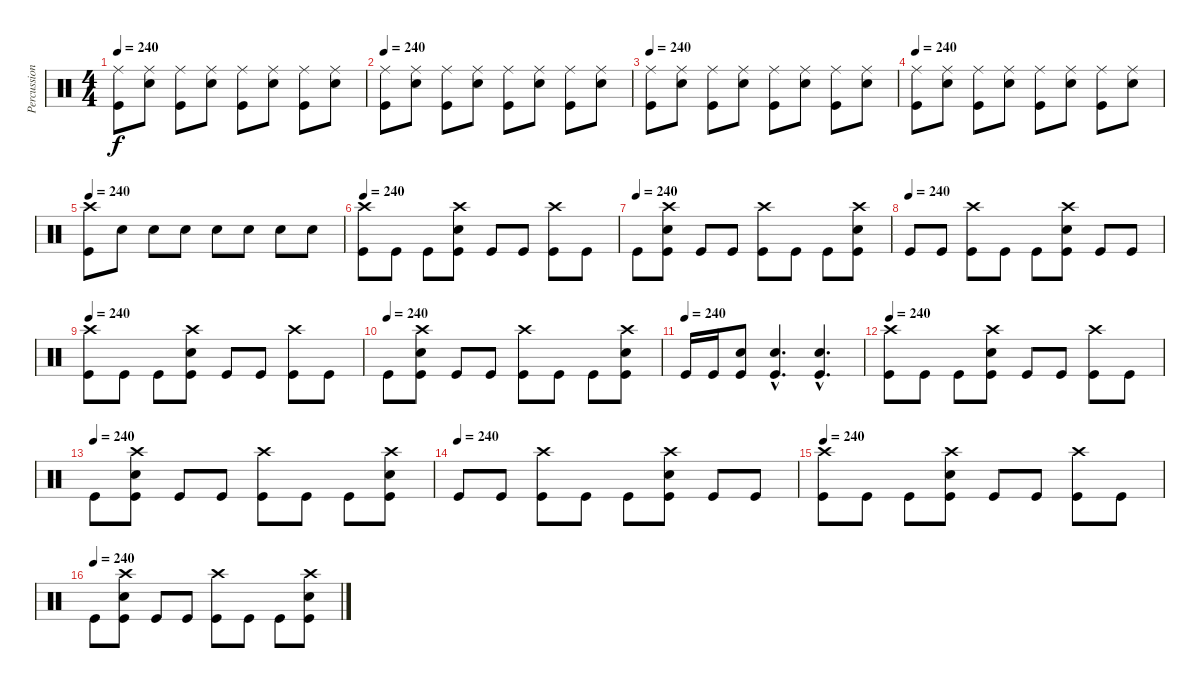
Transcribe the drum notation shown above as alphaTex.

\track ("Percussion" "Percussion") {instrument percussion}
\staff {score}
\articulation defaults
\ts (4 4)
\tempo 240
\clef neutral
\ks c
("Ride (middle)" "Kick (hit)").8{dy f} ("Electric Snare (hit)" "Ride (middle)").8 ("Ride (middle)" "Kick (hit)").8 ("Electric Snare (hit)" "Ride (middle)").8 ("Ride (middle)" "Kick (hit)").8 ("Electric Snare (hit)" "Ride (middle)").8 ("Ride (middle)" "Kick (hit)").8 ("Electric Snare (hit)" "Ride (middle)").8 |
\tempo 240
("Ride (middle)" "Kick (hit)").8 ("Electric Snare (hit)" "Ride (middle)").8 ("Ride (middle)" "Kick (hit)").8 ("Electric Snare (hit)" "Ride (middle)").8 ("Ride (middle)" "Kick (hit)").8 ("Electric Snare (hit)" "Ride (middle)").8 ("Ride (middle)" "Kick (hit)").8 ("Electric Snare (hit)" "Ride (middle)").8 |
\tempo 240
("Ride (middle)" "Kick (hit)").8 ("Electric Snare (hit)" "Ride (middle)").8 ("Ride (middle)" "Kick (hit)").8 ("Electric Snare (hit)" "Ride (middle)").8 ("Ride (middle)" "Kick (hit)").8 ("Electric Snare (hit)" "Ride (middle)").8 ("Ride (middle)" "Kick (hit)").8 ("Electric Snare (hit)" "Ride (middle)").8 |
\tempo 240
("Ride (middle)" "Kick (hit)").8 ("Electric Snare (hit)" "Ride (middle)").8 ("Ride (middle)" "Kick (hit)").8 ("Electric Snare (hit)" "Ride (middle)").8 ("Ride (middle)" "Kick (hit)").8 ("Electric Snare (hit)" "Ride (middle)").8 ("Ride (middle)" "Kick (hit)").8 ("Electric Snare (hit)" "Ride (middle)").8 |
\tempo 240
("Crash high (hit)" "Kick (hit)").8 "Electric Snare (hit)".8 "Electric Snare (hit)".8 "Electric Snare (hit)".8 "Electric Snare (hit)".8 "Electric Snare (hit)".8 "Electric Snare (hit)".8 "Electric Snare (hit)".8 |
\tempo 240
("Crash high (hit)" "Kick (hit)").8 "Kick (hit)".8 "Kick (hit)".8 ("Electric Snare (hit)" "Crash high (hit)" "Kick (hit)").8 "Kick (hit)".8 "Kick (hit)".8 ("Crash high (hit)" "Kick (hit)").8 "Kick (hit)".8 |
\tempo (240)
"Kick (hit)".8 ("Electric Snare (hit)" "Crash high (hit)" "Kick (hit)").8 "Kick (hit)".8 "Kick (hit)".8 ("Crash high (hit)" "Kick (hit)").8 "Kick (hit)".8 "Kick (hit)".8 ("Electric Snare (hit)" "Crash high (hit)" "Kick (hit)").8 |
\tempo (240)
"Kick (hit)".8 "Kick (hit)".8 ("Crash high (hit)" "Kick (hit)").8 "Kick (hit)".8 "Kick (hit)".8 ("Electric Snare (hit)" "Crash high (hit)" "Kick (hit)").8 "Kick (hit)".8 "Kick (hit)".8 |
\tempo 240
("Crash high (hit)" "Kick (hit)").8 "Kick (hit)".8 "Kick (hit)".8 ("Electric Snare (hit)" "Crash high (hit)" "Kick (hit)").8 "Kick (hit)".8 "Kick (hit)".8 ("Crash high (hit)" "Kick (hit)").8 "Kick (hit)".8 |
\tempo (240)
"Kick (hit)".8 ("Electric Snare (hit)" "Crash high (hit)" "Kick (hit)").8 "Kick (hit)".8 "Kick (hit)".8 ("Crash high (hit)" "Kick (hit)").8 "Kick (hit)".8 "Kick (hit)".8 ("Electric Snare (hit)" "Crash high (hit)" "Kick (hit)").8 |
\tempo (240)
"Kick (hit)".16 "Kick (hit)".16 ("Electric Snare (hit)" "Kick (hit)").8 ("Electric Snare (hit)"{hac} "Kick (hit)"{hac}).4{d} ("Electric Snare (hit)"{hac} "Kick (hit)"{hac}).4{d} |
\tempo 240
("Crash high (hit)" "Kick (hit)").8 "Kick (hit)".8 "Kick (hit)".8 ("Electric Snare (hit)" "Crash high (hit)" "Kick (hit)").8 "Kick (hit)".8 "Kick (hit)".8 ("Crash high (hit)" "Kick (hit)").8 "Kick (hit)".8 |
\tempo (240)
"Kick (hit)".8 ("Electric Snare (hit)" "Crash high (hit)" "Kick (hit)").8 "Kick (hit)".8 "Kick (hit)".8 ("Crash high (hit)" "Kick (hit)").8 "Kick (hit)".8 "Kick (hit)".8 ("Electric Snare (hit)" "Crash high (hit)" "Kick (hit)").8 |
\tempo (240)
"Kick (hit)".8 "Kick (hit)".8 ("Crash high (hit)" "Kick (hit)").8 "Kick (hit)".8 "Kick (hit)".8 ("Electric Snare (hit)" "Crash high (hit)" "Kick (hit)").8 "Kick (hit)".8 "Kick (hit)".8 |
\tempo 240
("Crash high (hit)" "Kick (hit)").8 "Kick (hit)".8 "Kick (hit)".8 ("Electric Snare (hit)" "Crash high (hit)" "Kick (hit)").8 "Kick (hit)".8 "Kick (hit)".8 ("Crash high (hit)" "Kick (hit)").8 "Kick (hit)".8 |
\tempo (240)
"Kick (hit)".8 ("Electric Snare (hit)" "Crash high (hit)" "Kick (hit)").8 "Kick (hit)".8 "Kick (hit)".8 ("Crash high (hit)" "Kick (hit)").8 "Kick (hit)".8 "Kick (hit)".8 ("Electric Snare (hit)" "Crash high (hit)" "Kick (hit)").8
